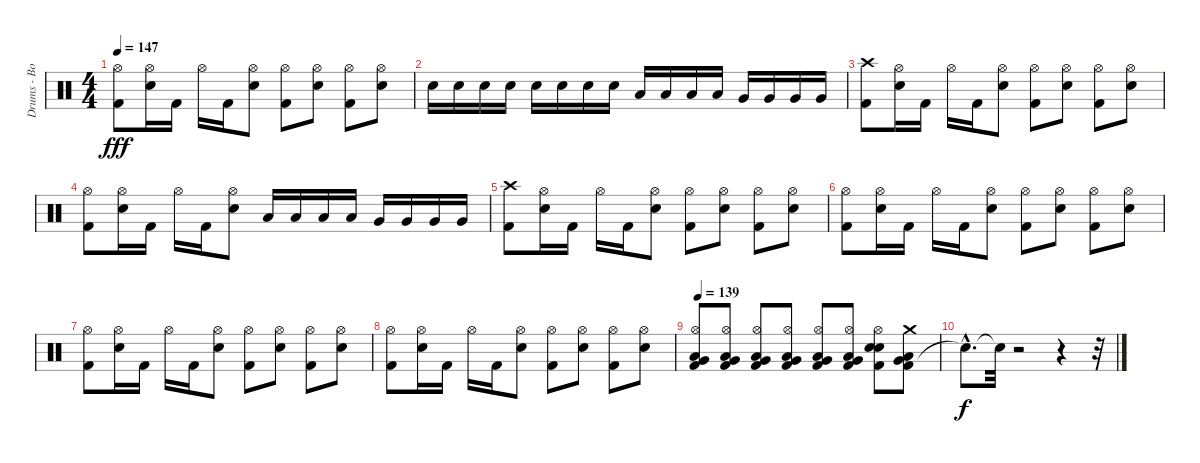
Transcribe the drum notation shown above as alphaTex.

\track ("Drums - Bobby Schayer" "Drums - Bo") {instrument percussion}
\staff {score}
\articulation defaults
\ts (4 4)
\tempo 147
\clef neutral
\ks c
("Kick (hit) 2" "Hi-Hat (open)").8{dy fff} ("Electric Snare (hit)" "Hi-Hat (open)").16 "Kick (hit) 2".16 "Hi-Hat (open)".16 "Kick (hit) 2".16 ("Electric Snare (hit)" "Hi-Hat (open)").8 ("Hi-Hat (open)" "Kick (hit) 2").8 ("Hi-Hat (open)" "Electric Snare (hit)").8 ("Hi-Hat (open)" "Kick (hit) 2").8 ("Electric Snare (hit)" "Hi-Hat (open)").8 |
"Electric Snare (hit)".16 "Electric Snare (hit)".16 "Electric Snare (hit)".16 "Electric Snare (hit)".16 "Electric Snare (hit)".16 "Electric Snare (hit)".16 "Electric Snare (hit)".16 "Electric Snare (hit)".16 "Low Tom (hit)".16 "Low Tom (hit)".16 "Low Tom (hit)".16 "Low Tom (hit)".16 "Very Low Tom (hit)".16 "Very Low Tom (hit)".16 "Very Low Tom (hit)".16 "Very Low Tom (hit)".16 |
("Kick (hit) 2" "Crash high (hit)").8 ("Electric Snare (hit)" "Hi-Hat (open)").16 "Kick (hit) 2".16 "Hi-Hat (open)".16 "Kick (hit) 2".16 ("Electric Snare (hit)" "Hi-Hat (open)").8 ("Kick (hit) 2" "Hi-Hat (open)").8 ("Electric Snare (hit)" "Hi-Hat (open)").8 ("Kick (hit) 2" "Hi-Hat (open)").8 ("Electric Snare (hit)" "Hi-Hat (open)").8 |
("Kick (hit) 2" "Hi-Hat (open)").8 ("Electric Snare (hit)" "Hi-Hat (open)").16 "Kick (hit) 2".16 "Hi-Hat (open)".16 "Kick (hit) 2".16 ("Electric Snare (hit)" "Hi-Hat (open)").8 "Low Tom (hit)".16 "Low Tom (hit)".16 "Low Tom (hit)".16 "Low Tom (hit)".16 "Very Low Tom (hit)".16 "Very Low Tom (hit)".16 "Very Low Tom (hit)".16 "Very Low Tom (hit)".16 |
("Kick (hit) 2" "Crash high (hit)").8 ("Electric Snare (hit)" "Hi-Hat (open)").16 "Kick (hit) 2".16 "Hi-Hat (open)".16 "Kick (hit) 2".16 ("Electric Snare (hit)" "Hi-Hat (open)").8 ("Kick (hit) 2" "Hi-Hat (open)").8 ("Electric Snare (hit)" "Hi-Hat (open)").8 ("Kick (hit) 2" "Hi-Hat (open)").8 ("Electric Snare (hit)" "Hi-Hat (open)").8 |
("Kick (hit) 2" "Hi-Hat (open)").8 ("Electric Snare (hit)" "Hi-Hat (open)").16 "Kick (hit) 2".16 "Hi-Hat (open)".16 "Kick (hit) 2".16 ("Electric Snare (hit)" "Hi-Hat (open)").8 ("Kick (hit) 2" "Hi-Hat (open)").8 ("Electric Snare (hit)" "Hi-Hat (open)").8 ("Kick (hit) 2" "Hi-Hat (open)").8 ("Electric Snare (hit)" "Hi-Hat (open)").8 |
("Kick (hit) 2" "Hi-Hat (open)").8 ("Electric Snare (hit)" "Hi-Hat (open)").16 "Kick (hit) 2".16 "Hi-Hat (open)".16 "Kick (hit) 2".16 ("Electric Snare (hit)" "Hi-Hat (open)").8 ("Kick (hit) 2" "Hi-Hat (open)").8 ("Electric Snare (hit)" "Hi-Hat (open)").8 ("Kick (hit) 2" "Hi-Hat (open)").8 ("Electric Snare (hit)" "Hi-Hat (open)").8 |
("Kick (hit) 2" "Hi-Hat (open)").8 ("Electric Snare (hit)" "Hi-Hat (open)").16 "Kick (hit) 2".16 "Hi-Hat (open)".16 "Kick (hit) 2".16 ("Electric Snare (hit)" "Hi-Hat (open)").8 ("Kick (hit) 2" "Hi-Hat (open)").8 ("Electric Snare (hit)" "Hi-Hat (open)").8 ("Kick (hit) 2" "Hi-Hat (open)").8 ("Electric Snare (hit)" "Hi-Hat (open)").8 |
\tempo 139
("Kick (hit) 2" "Hi-Hat (open)" "Very Low Tom (hit)" "Low Floor Tom (hit)").8 ("Kick (hit) 2" "Hi-Hat (open)" "Very Low Tom (hit)" "Low Floor Tom (hit)").8 ("Kick (hit) 2" "Hi-Hat (open)" "Very Low Tom (hit)" "Low Floor Tom (hit)").8 ("Kick (hit) 2" "Hi-Hat (open)" "Very Low Tom (hit)" "Low Floor Tom (hit)").8 ("Kick (hit) 2" "Hi-Hat (open)" "Very Low Tom (hit)" "Low Floor Tom (hit)").8 ("Kick (hit) 2" "Hi-Hat (open)" "Very Low Tom (hit)" "Low Floor Tom (hit)").8 ("Kick (hit) 2" "Hi-Hat (open)" "Electric Snare (hit)" "Electric Snare (hit)").8 ("Kick (hit) 2" "Low Tom (hit)" "Crash medium (hit)" "Very Low Tom (hit)").8 |
"Snare (hit)"{hac t}.8{d dy f} "Snare (hit)"{t}.32 r.2 r.4 r.32
